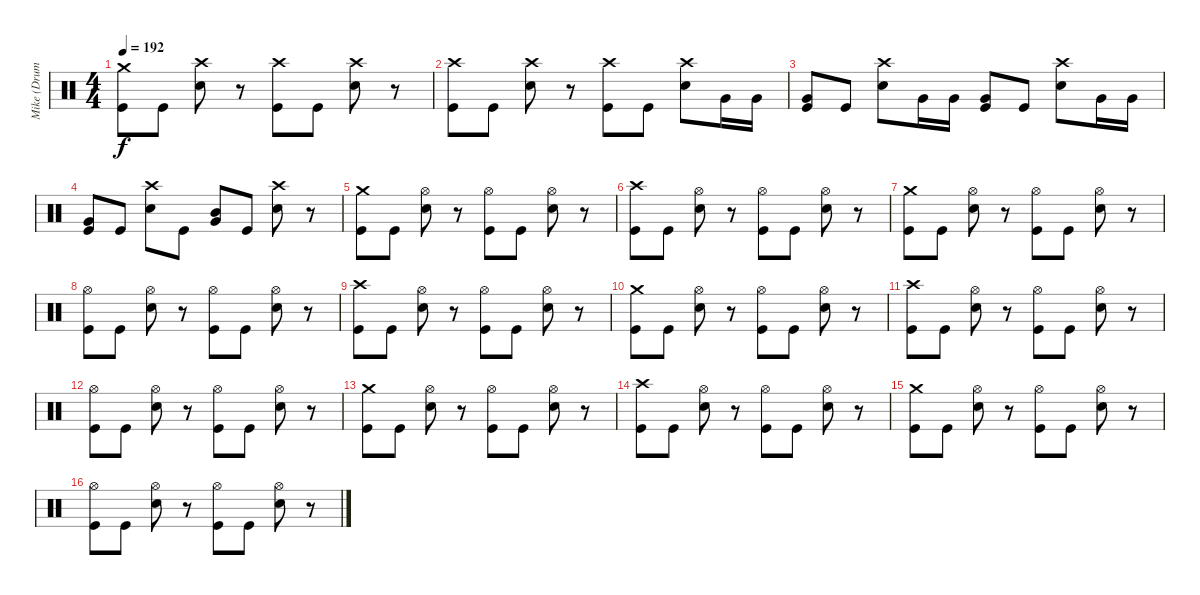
\track ("Mike (Drums)" "Mike (Drum") {instrument percussion}
\staff {score}
\articulation defaults
\ts (4 4)
\tempo 192
\clef neutral
\ks c
("Crash medium (hit)" "Kick (hit)").8{dy f} "Kick (hit)".8 ("Crash high (hit)" "Snare (hit) 2").8 r.8 ("Crash high (hit)" "Kick (hit)").8 "Kick (hit)".8 ("Crash high (hit)" "Snare (hit) 2").8 r.8 |
("Crash high (hit)" "Kick (hit)").8 "Kick (hit)".8 ("Crash high (hit)" "Snare (hit) 2").8 r.8 ("Crash high (hit)" "Kick (hit)").8 "Kick (hit)".8 ("Crash high (hit)" "Snare (hit) 2").8 "Very Low Tom (hit)".16 "Very Low Tom (hit)".16 |
("Very Low Tom (hit)" "Kick (hit)").8 "Kick (hit)".8 ("Crash high (hit)" "Snare (hit) 2").8 "Very Low Tom (hit)".16 "Very Low Tom (hit)".16 ("Very Low Tom (hit)" "Kick (hit)").8 "Kick (hit)".8 ("Crash high (hit)" "Snare (hit) 2").8 "Very Low Tom (hit)".16 "Very Low Tom (hit)".16 |
("Very Low Tom (hit)" "Kick (hit)").8 "Kick (hit)".8 ("Crash high (hit)" "Snare (hit) 2").8 "Kick (hit)".8 ("Mid Tom (hit)" "Very Low Tom (hit)").8 "Kick (hit)".8 ("Crash high (hit)" "Snare (hit) 2").8 r.8 |
("Crash medium (hit)" "Kick (hit)").8 "Kick (hit)".8 ("Hi-Hat (open)" "Snare (hit) 2").8 r.8 ("Hi-Hat (open)" "Kick (hit)").8 "Kick (hit)".8 ("Hi-Hat (open)" "Snare (hit) 2").8 r.8 |
("Crash high (hit)" "Kick (hit)").8 "Kick (hit)".8 ("Hi-Hat (open)" "Snare (hit) 2").8 r.8 ("Hi-Hat (open)" "Kick (hit)").8 "Kick (hit)".8 ("Hi-Hat (open)" "Snare (hit) 2").8 r.8 |
("Crash medium (hit)" "Kick (hit)").8 "Kick (hit)".8 ("Hi-Hat (open)" "Snare (hit) 2").8 r.8 ("Hi-Hat (open)" "Kick (hit)").8 "Kick (hit)".8 ("Hi-Hat (open)" "Snare (hit) 2").8 r.8 |
("Hi-Hat (open)" "Kick (hit)").8 "Kick (hit)".8 ("Hi-Hat (open)" "Snare (hit) 2").8 r.8 ("Hi-Hat (open)" "Kick (hit)").8 "Kick (hit)".8 ("Hi-Hat (open)" "Snare (hit) 2").8 r.8 |
("Crash high (hit)" "Kick (hit)").8 "Kick (hit)".8 ("Hi-Hat (open)" "Snare (hit) 2").8 r.8 ("Hi-Hat (open)" "Kick (hit)").8 "Kick (hit)".8 ("Hi-Hat (open)" "Snare (hit) 2").8 r.8 |
("Crash medium (hit)" "Kick (hit)").8 "Kick (hit)".8 ("Hi-Hat (open)" "Snare (hit) 2").8 r.8 ("Hi-Hat (open)" "Kick (hit)").8 "Kick (hit)".8 ("Hi-Hat (open)" "Snare (hit) 2").8 r.8 |
("Crash high (hit)" "Kick (hit)").8 "Kick (hit)".8 ("Hi-Hat (open)" "Snare (hit) 2").8 r.8 ("Hi-Hat (open)" "Kick (hit)").8 "Kick (hit)".8 ("Hi-Hat (open)" "Snare (hit) 2").8 r.8 |
("Hi-Hat (open)" "Kick (hit)").8 "Kick (hit)".8 ("Hi-Hat (open)" "Snare (hit) 2").8 r.8 ("Hi-Hat (open)" "Kick (hit)").8 "Kick (hit)".8 ("Hi-Hat (open)" "Snare (hit) 2").8 r.8 |
("Crash medium (hit)" "Kick (hit)").8 "Kick (hit)".8 ("Hi-Hat (open)" "Snare (hit) 2").8 r.8 ("Hi-Hat (open)" "Kick (hit)").8 "Kick (hit)".8 ("Hi-Hat (open)" "Snare (hit) 2").8 r.8 |
("Crash high (hit)" "Kick (hit)").8 "Kick (hit)".8 ("Hi-Hat (open)" "Snare (hit) 2").8 r.8 ("Hi-Hat (open)" "Kick (hit)").8 "Kick (hit)".8 ("Hi-Hat (open)" "Snare (hit) 2").8 r.8 |
("Crash medium (hit)" "Kick (hit)").8 "Kick (hit)".8 ("Hi-Hat (open)" "Snare (hit) 2").8 r.8 ("Hi-Hat (open)" "Kick (hit)").8 "Kick (hit)".8 ("Hi-Hat (open)" "Snare (hit) 2").8 r.8 |
("Hi-Hat (open)" "Kick (hit)").8 "Kick (hit)".8 ("Hi-Hat (open)" "Snare (hit) 2").8 r.8 ("Hi-Hat (open)" "Kick (hit)").8 "Kick (hit)".8 ("Hi-Hat (open)" "Snare (hit) 2").8 r.8
